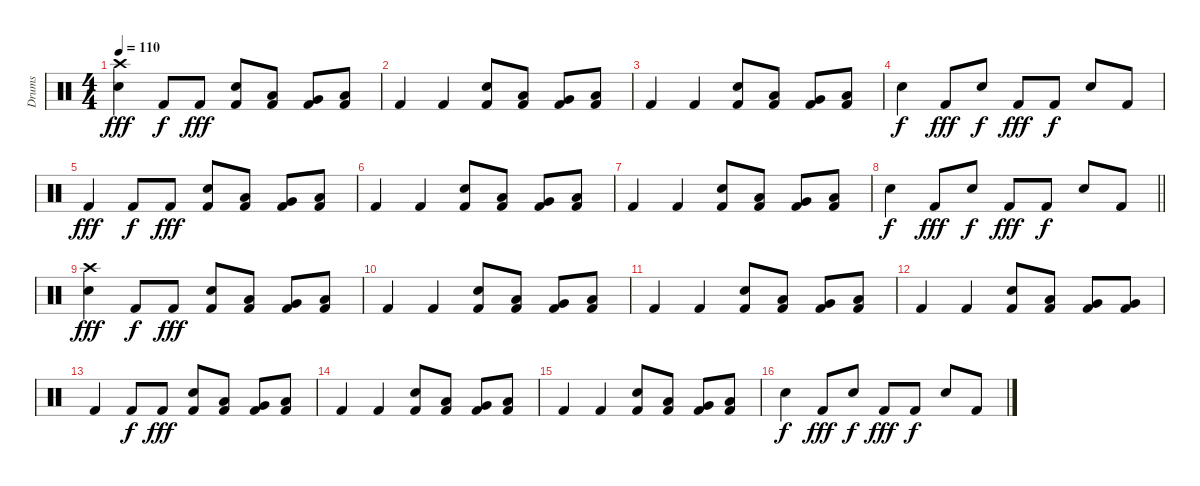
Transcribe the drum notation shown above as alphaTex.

\track ("Drums" "Drums") {instrument percussion}
\staff {score}
\articulation defaults
\ts (4 4)
\tempo 110
\clef neutral
\ks c
("Crash high (hit)" "Electric Snare (hit)").4{dy fff} "Kick (hit) 2".8{dy f} "Kick (hit) 2".8{dy fff} ("Electric Snare (hit)" "Kick (hit) 2").8 ("Low Tom (hit)" "Kick (hit) 2").8 ("Very Low Tom (hit)" "Kick (hit) 2").8 ("Low Tom (hit)" "Kick (hit) 2").8 |
"Kick (hit) 2".4 "Kick (hit) 2".4 ("Electric Snare (hit)" "Kick (hit) 2").8 ("Low Tom (hit)" "Kick (hit) 2").8 ("Very Low Tom (hit)" "Kick (hit) 2").8 ("Low Tom (hit)" "Kick (hit) 2").8 |
"Kick (hit) 2".4 "Kick (hit) 2".4 ("Electric Snare (hit)" "Kick (hit) 2").8 ("Low Tom (hit)" "Kick (hit) 2").8 ("Very Low Tom (hit)" "Kick (hit) 2").8 ("Low Tom (hit)" "Kick (hit) 2").8 |
"Electric Snare (hit)".4{dy f volume 12} "Kick (hit) 2".8{dy fff} "Electric Snare (hit)".8{dy f} "Kick (hit) 2".8{dy fff} "Kick (hit) 2".8{dy f} "Electric Snare (hit)".8 "Kick (hit) 2".8 |
"Kick (hit) 2".4{dy fff} "Kick (hit) 2".8{dy f} "Kick (hit) 2".8{dy fff} ("Electric Snare (hit)" "Kick (hit) 2").8 ("Low Tom (hit)" "Kick (hit) 2").8 ("Very Low Tom (hit)" "Kick (hit) 2").8 ("Low Tom (hit)" "Kick (hit) 2").8 |
"Kick (hit) 2".4 "Kick (hit) 2".4 ("Electric Snare (hit)" "Kick (hit) 2").8 ("Low Tom (hit)" "Kick (hit) 2").8 ("Very Low Tom (hit)" "Kick (hit) 2").8 ("Low Tom (hit)" "Kick (hit) 2").8 |
"Kick (hit) 2".4 "Kick (hit) 2".4 ("Electric Snare (hit)" "Kick (hit) 2").8 ("Low Tom (hit)" "Kick (hit) 2").8 ("Very Low Tom (hit)" "Kick (hit) 2").8 ("Low Tom (hit)" "Kick (hit) 2").8 |
\barLineRight lightlight "Electric Snare (hit)".4{dy f} "Kick (hit) 2".8{dy fff} "Electric Snare (hit)".8{dy f} "Kick (hit) 2".8{dy fff} "Kick (hit) 2".8{dy f} "Electric Snare (hit)".8 "Kick (hit) 2".8
|
("Crash high (hit)" "Electric Snare (hit)").4{dy fff volume 8} "Kick (hit) 2".8{dy f} "Kick (hit) 2".8{dy fff} ("Electric Snare (hit)" "Kick (hit) 2").8 ("Low Tom (hit)" "Kick (hit) 2").8 ("Very Low Tom (hit)" "Kick (hit) 2").8 ("Low Tom (hit)" "Kick (hit) 2").8 |
"Kick (hit) 2".4 "Kick (hit) 2".4 ("Electric Snare (hit)" "Kick (hit) 2").8 ("Low Tom (hit)" "Kick (hit) 2").8 ("Very Low Tom (hit)" "Kick (hit) 2").8 ("Low Tom (hit)" "Kick (hit) 2").8 |
"Kick (hit) 2".4 "Kick (hit) 2".4 ("Electric Snare (hit)" "Kick (hit) 2").8 ("Low Tom (hit)" "Kick (hit) 2").8 ("Very Low Tom (hit)" "Kick (hit) 2").8 ("Low Tom (hit)" "Kick (hit) 2").8 |
"Kick (hit) 2".4 "Kick (hit) 2".4 ("Electric Snare (hit)" "Kick (hit) 2").8 ("Low Tom (hit)" "Kick (hit) 2").8 ("Very Low Tom (hit)" "Kick (hit) 2").8 ("Very Low Tom (hit)" "Kick (hit) 2").8 |
"Kick (hit) 2".4 "Kick (hit) 2".8{dy f} "Kick (hit) 2".8{dy fff} ("Electric Snare (hit)" "Kick (hit) 2").8 ("Low Tom (hit)" "Kick (hit) 2").8 ("Very Low Tom (hit)" "Kick (hit) 2").8 ("Low Tom (hit)" "Kick (hit) 2").8 |
"Kick (hit) 2".4{volume 4} "Kick (hit) 2".4 ("Electric Snare (hit)" "Kick (hit) 2").8 ("Low Tom (hit)" "Kick (hit) 2").8 ("Very Low Tom (hit)" "Kick (hit) 2").8 ("Low Tom (hit)" "Kick (hit) 2").8 |
"Kick (hit) 2".4 "Kick (hit) 2".4 ("Electric Snare (hit)" "Kick (hit) 2").8 ("Low Tom (hit)" "Kick (hit) 2").8 ("Very Low Tom (hit)" "Kick (hit) 2").8 ("Low Tom (hit)" "Kick (hit) 2").8 |
"Electric Snare (hit)".4{dy f} "Kick (hit) 2".8{dy fff} "Electric Snare (hit)".8{dy f} "Kick (hit) 2".8{dy fff} "Kick (hit) 2".8{dy f} "Electric Snare (hit)".8 "Kick (hit) 2".8
